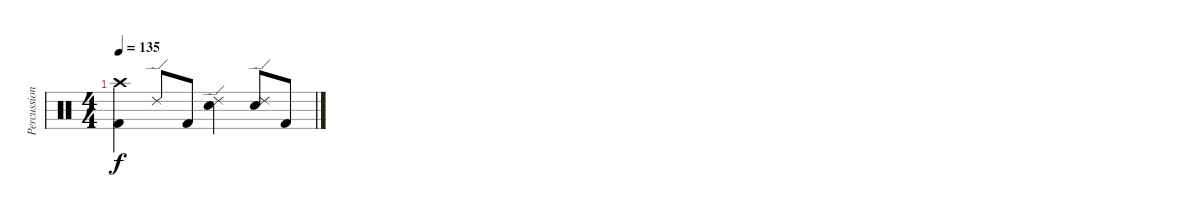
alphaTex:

\track ("Percussion" "Percussion") {instrument percussion}
\staff {score}
\articulation defaults
\ts (4 4)
\tempo 135
\clef neutral
\ks c
("Crash high (hit)" "Kick (hit) 2").4{dy f} "Ride (edge) 2".8 "Kick (hit) 2".8 ("Ride (edge) 2" "Snare (hit) 2").4 ("Ride (edge) 2" "Snare (hit) 2").8 "Kick (hit) 2".8
